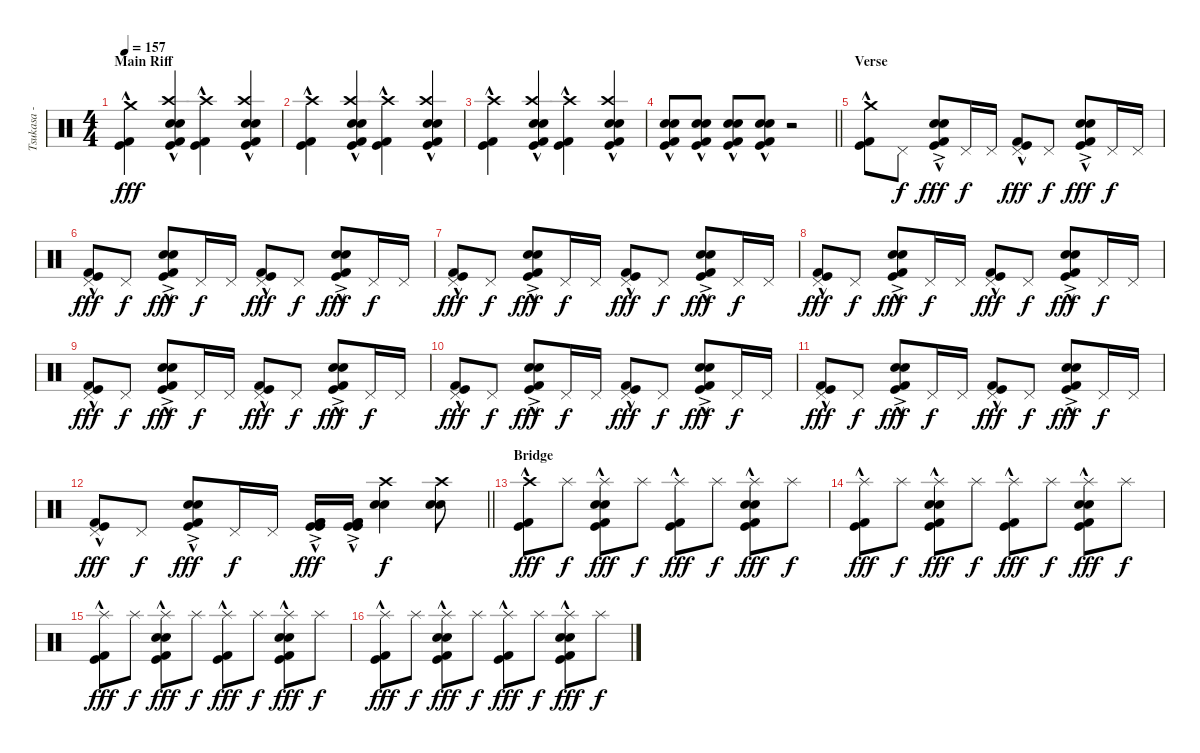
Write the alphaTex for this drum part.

\track ("Tsukasa - Drums" "Tsukasa - ") {instrument percussion}
\staff {score}
\articulation defaults
\ts (4 4)
\section ("" "Main Riff")
\tempo 157
\clef neutral
\ks c
("Crash medium (hit)" "Kick (hit)"{hac} "Kick (hit) 2"{hac}).4{dy fff} ("Crash high (hit)" "Electric Snare (hit)"{hac} "Snare (hit) 2" "Kick (hit)"{hac} "Kick (hit) 2"{hac}).4 ("Crash high (hit)" "Kick (hit)"{hac} "Kick (hit) 2"{hac}).4 ("Crash high (hit)" "Electric Snare (hit)"{hac} "Snare (hit) 2" "Kick (hit)"{hac} "Kick (hit) 2"{hac}).4 |
("Crash high (hit)" "Kick (hit)"{hac} "Kick (hit) 2"{hac}).4 ("Crash high (hit)" "Electric Snare (hit)"{hac} "Snare (hit) 2" "Kick (hit)"{hac} "Kick (hit) 2"{hac}).4 ("Crash high (hit)" "Kick (hit)"{hac} "Kick (hit) 2"{hac}).4 ("Crash high (hit)" "Electric Snare (hit)"{hac} "Snare (hit) 2" "Kick (hit)"{hac} "Kick (hit) 2"{hac}).4 |
("Crash high (hit)" "Kick (hit)"{hac} "Kick (hit) 2"{hac}).4 ("Crash high (hit)" "Electric Snare (hit)"{hac} "Snare (hit) 2" "Kick (hit)"{hac} "Kick (hit) 2"{hac}).4 ("Crash high (hit)" "Kick (hit)"{hac} "Kick (hit) 2"{hac}).4 ("Crash high (hit)" "Electric Snare (hit)"{hac} "Snare (hit) 2" "Kick (hit)"{hac} "Kick (hit) 2"{hac}).4 |
\barLineRight lightlight
("Electric Snare (hit)" "Snare (hit) 2" "Kick (hit)"{hac} "Kick (hit) 2"{hac}).8 ("Electric Snare (hit)" "Snare (hit) 2" "Kick (hit)"{hac} "Kick (hit) 2"{hac}).8 ("Electric Snare (hit)" "Snare (hit) 2" "Kick (hit)"{hac} "Kick (hit) 2"{hac}).8 ("Electric Snare (hit)" "Snare (hit) 2" "Kick (hit)"{hac} "Kick (hit) 2"{hac}).8 r.2 |
\section ("" "Verse")
("Crash medium (hit)" "Kick (hit)"{hac} "Kick (hit) 2"{hac}).8 "Pedal Hi-Hat (hit)".8{dy f} ("Electric Snare (hit)"{ac} "Snare (hit) 2"{ac} "Kick (hit)"{hac} "Kick (hit) 2"{hac}).8{dy fff} "Pedal Hi-Hat (hit)".16{dy f} "Pedal Hi-Hat (hit)".16 ("Pedal Hi-Hat (hit)" "Kick (hit)"{hac} "Kick (hit) 2"{hac}).8{dy fff} "Pedal Hi-Hat (hit)".8{dy f} ("Electric Snare (hit)"{ac} "Snare (hit) 2"{ac} "Kick (hit)"{hac} "Kick (hit) 2"{hac}).8{dy fff} "Pedal Hi-Hat (hit)".16{dy f} "Pedal Hi-Hat (hit)".16 |
("Pedal Hi-Hat (hit)" "Kick (hit)"{hac} "Kick (hit) 2"{hac}).8{dy fff} "Pedal Hi-Hat (hit)".8{dy f} ("Electric Snare (hit)"{ac} "Snare (hit) 2"{ac} "Kick (hit)"{hac} "Kick (hit) 2"{hac}).8{dy fff} "Pedal Hi-Hat (hit)".16{dy f} "Pedal Hi-Hat (hit)".16 ("Pedal Hi-Hat (hit)" "Kick (hit)"{hac} "Kick (hit) 2"{hac}).8{dy fff} "Pedal Hi-Hat (hit)".8{dy f} ("Electric Snare (hit)"{ac} "Snare (hit) 2"{ac} "Kick (hit)"{hac} "Kick (hit) 2"{hac}).8{dy fff} "Pedal Hi-Hat (hit)".16{dy f} "Pedal Hi-Hat (hit)".16 |
("Pedal Hi-Hat (hit)" "Kick (hit)"{hac} "Kick (hit) 2"{hac}).8{dy fff} "Pedal Hi-Hat (hit)".8{dy f} ("Electric Snare (hit)"{ac} "Snare (hit) 2"{ac} "Kick (hit)"{hac} "Kick (hit) 2"{hac}).8{dy fff} "Pedal Hi-Hat (hit)".16{dy f} "Pedal Hi-Hat (hit)".16 ("Pedal Hi-Hat (hit)" "Kick (hit)"{hac} "Kick (hit) 2"{hac}).8{dy fff} "Pedal Hi-Hat (hit)".8{dy f} ("Electric Snare (hit)"{ac} "Snare (hit) 2"{ac} "Kick (hit)"{hac} "Kick (hit) 2"{hac}).8{dy fff} "Pedal Hi-Hat (hit)".16{dy f} "Pedal Hi-Hat (hit)".16 |
("Pedal Hi-Hat (hit)" "Kick (hit)"{hac} "Kick (hit) 2"{hac}).8{dy fff} "Pedal Hi-Hat (hit)".8{dy f} ("Electric Snare (hit)"{ac} "Snare (hit) 2"{ac} "Kick (hit)"{hac} "Kick (hit) 2"{hac}).8{dy fff} "Pedal Hi-Hat (hit)".16{dy f} "Pedal Hi-Hat (hit)".16 ("Pedal Hi-Hat (hit)" "Kick (hit)"{hac} "Kick (hit) 2"{hac}).8{dy fff} "Pedal Hi-Hat (hit)".8{dy f} ("Electric Snare (hit)"{ac} "Snare (hit) 2"{ac} "Kick (hit)"{hac} "Kick (hit) 2"{hac}).8{dy fff} "Pedal Hi-Hat (hit)".16{dy f} "Pedal Hi-Hat (hit)".16 |
("Pedal Hi-Hat (hit)" "Kick (hit)"{hac} "Kick (hit) 2"{hac}).8{dy fff} "Pedal Hi-Hat (hit)".8{dy f} ("Electric Snare (hit)"{ac} "Snare (hit) 2"{ac} "Kick (hit)"{hac} "Kick (hit) 2"{hac}).8{dy fff} "Pedal Hi-Hat (hit)".16{dy f} "Pedal Hi-Hat (hit)".16 ("Pedal Hi-Hat (hit)" "Kick (hit)"{hac} "Kick (hit) 2"{hac}).8{dy fff} "Pedal Hi-Hat (hit)".8{dy f} ("Electric Snare (hit)"{ac} "Snare (hit) 2"{ac} "Kick (hit)"{hac} "Kick (hit) 2"{hac}).8{dy fff} "Pedal Hi-Hat (hit)".16{dy f} "Pedal Hi-Hat (hit)".16 |
("Pedal Hi-Hat (hit)" "Kick (hit)"{hac} "Kick (hit) 2"{hac}).8{dy fff} "Pedal Hi-Hat (hit)".8{dy f} ("Electric Snare (hit)"{ac} "Snare (hit) 2"{ac} "Kick (hit)"{hac} "Kick (hit) 2"{hac}).8{dy fff} "Pedal Hi-Hat (hit)".16{dy f} "Pedal Hi-Hat (hit)".16 ("Pedal Hi-Hat (hit)" "Kick (hit)"{hac} "Kick (hit) 2"{hac}).8{dy fff} "Pedal Hi-Hat (hit)".8{dy f} ("Electric Snare (hit)"{ac} "Snare (hit) 2"{ac} "Kick (hit)"{hac} "Kick (hit) 2"{hac}).8{dy fff} "Pedal Hi-Hat (hit)".16{dy f} "Pedal Hi-Hat (hit)".16 |
("Pedal Hi-Hat (hit)" "Kick (hit)"{hac} "Kick (hit) 2"{hac}).8{dy fff} "Pedal Hi-Hat (hit)".8{dy f} ("Electric Snare (hit)"{ac} "Snare (hit) 2"{ac} "Kick (hit)"{hac} "Kick (hit) 2"{hac}).8{dy fff} "Pedal Hi-Hat (hit)".16{dy f} "Pedal Hi-Hat (hit)".16 ("Pedal Hi-Hat (hit)" "Kick (hit)"{hac} "Kick (hit) 2"{hac}).8{dy fff} "Pedal Hi-Hat (hit)".8{dy f} ("Electric Snare (hit)"{ac} "Snare (hit) 2"{ac} "Kick (hit)"{hac} "Kick (hit) 2"{hac}).8{dy fff} "Pedal Hi-Hat (hit)".16{dy f} "Pedal Hi-Hat (hit)".16 |
\barLineRight lightlight
("Pedal Hi-Hat (hit)" "Kick (hit)"{hac} "Kick (hit) 2"{hac}).8{dy fff} "Pedal Hi-Hat (hit)".8{dy f} ("Electric Snare (hit)"{ac} "Snare (hit) 2"{ac} "Kick (hit)"{hac} "Kick (hit) 2"{hac}).8{dy fff} "Pedal Hi-Hat (hit)".16{dy f} "Pedal Hi-Hat (hit)".16 ("Kick (hit)"{ac} "Kick (hit) 2"{ac} "Kick (hit)"{hac} "Kick (hit) 2"{hac}).16{dy fff} ("Kick (hit)"{ac} "Kick (hit) 2"{ac} "Kick (hit)"{hac} "Kick (hit) 2"{hac}).16 ("Crash high (hit)" "Electric Snare (hit)" "Snare (hit) 2").4{dy f} ("Crash high (hit)" "Electric Snare (hit)" "Snare (hit) 2").8 |
\section ("" "Bridge")
("Crash high (hit)" "Kick (hit)"{hac} "Kick (hit) 2"{hac}).8{dy fff} "Splash (hit)".8{dy f} ("Splash (hit)"{hac} "Electric Snare (hit)"{hac} "Snare (hit) 2" "Kick (hit)"{hac} "Kick (hit) 2"{hac}).8{dy fff} "Splash (hit)".8{dy f} ("Splash (hit)"{hac} "Kick (hit)"{hac} "Kick (hit) 2"{hac}).8{dy fff} "Splash (hit)".8{dy f} ("Splash (hit)"{hac} "Electric Snare (hit)"{hac} "Snare (hit) 2" "Kick (hit)"{hac} "Kick (hit) 2"{hac}).8{dy fff} "Splash (hit)".8{dy f} |
("Splash (hit)"{hac} "Kick (hit)"{hac} "Kick (hit) 2"{hac}).8{dy fff} "Splash (hit)".8{dy f} ("Splash (hit)"{hac} "Electric Snare (hit)"{hac} "Snare (hit) 2" "Kick (hit)"{hac} "Kick (hit) 2"{hac}).8{dy fff} "Splash (hit)".8{dy f} ("Splash (hit)"{hac} "Kick (hit)"{hac} "Kick (hit) 2"{hac}).8{dy fff} "Splash (hit)".8{dy f} ("Splash (hit)"{hac} "Electric Snare (hit)"{hac} "Snare (hit) 2" "Kick (hit)"{hac} "Kick (hit) 2"{hac}).8{dy fff} "Splash (hit)".8{dy f} |
("Splash (hit)"{hac} "Kick (hit)"{hac} "Kick (hit) 2"{hac}).8{dy fff} "Splash (hit)".8{dy f} ("Splash (hit)"{hac} "Electric Snare (hit)"{hac} "Snare (hit) 2" "Kick (hit)"{hac} "Kick (hit) 2"{hac}).8{dy fff} "Splash (hit)".8{dy f} ("Splash (hit)"{hac} "Kick (hit)"{hac} "Kick (hit) 2"{hac}).8{dy fff} "Splash (hit)".8{dy f} ("Splash (hit)"{hac} "Electric Snare (hit)"{hac} "Snare (hit) 2" "Kick (hit)"{hac} "Kick (hit) 2"{hac}).8{dy fff} "Splash (hit)".8{dy f} |
("Splash (hit)"{hac} "Kick (hit)"{hac} "Kick (hit) 2"{hac}).8{dy fff} "Splash (hit)".8{dy f} ("Splash (hit)"{hac} "Electric Snare (hit)"{hac} "Snare (hit) 2" "Kick (hit)"{hac} "Kick (hit) 2"{hac}).8{dy fff} "Splash (hit)".8{dy f} ("Splash (hit)"{hac} "Kick (hit)"{hac} "Kick (hit) 2"{hac}).8{dy fff} "Splash (hit)".8{dy f} ("Splash (hit)"{hac} "Electric Snare (hit)"{hac} "Snare (hit) 2" "Kick (hit)"{hac} "Kick (hit) 2"{hac}).8{dy fff} "Splash (hit)".8{dy f}
